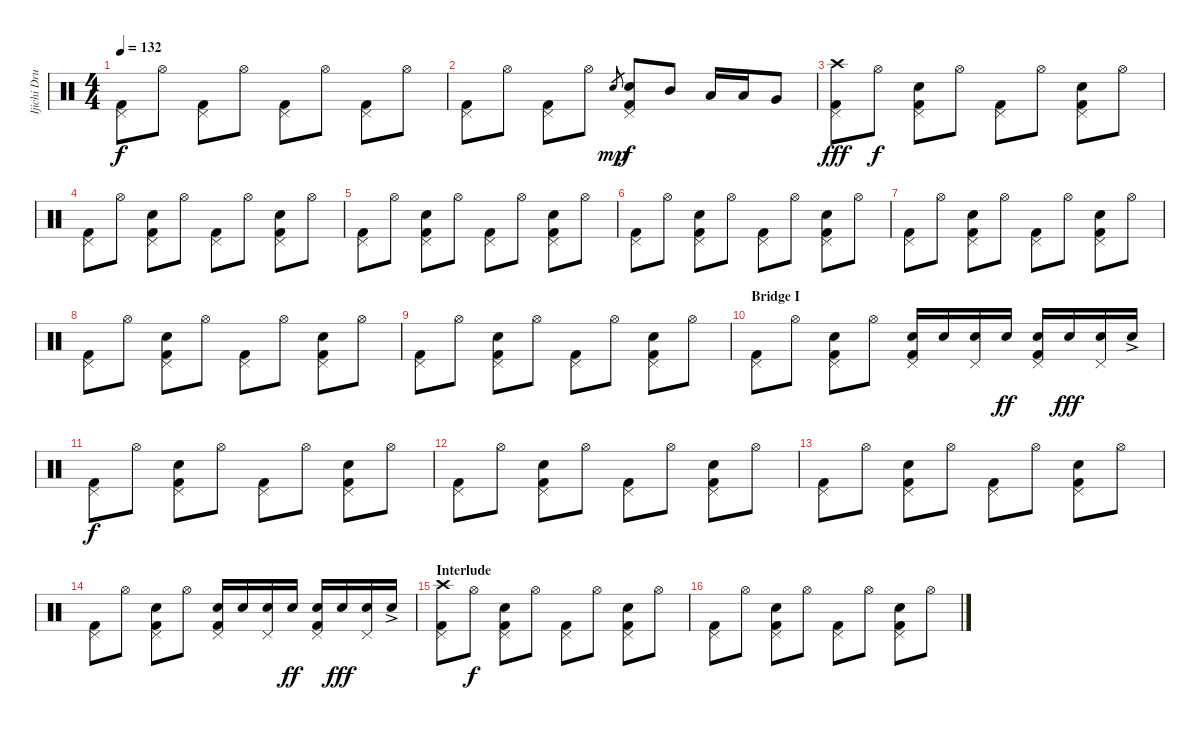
\track ("Ijichi Drums" "Ijichi Dru") {instrument percussion}
\staff {score}
\articulation defaults
\ts (4 4)
\tempo 132
\clef neutral
\ks c
("Pedal Hi-Hat (hit)" "Kick (hit) 2").8{dy f} "Hi-Hat (open)".8 ("Pedal Hi-Hat (hit)" "Kick (hit) 2").8 "Hi-Hat (open)".8 ("Pedal Hi-Hat (hit)" "Kick (hit) 2").8 "Hi-Hat (open)".8 ("Pedal Hi-Hat (hit)" "Kick (hit) 2").8 "Hi-Hat (open)".8 |
("Pedal Hi-Hat (hit)" "Kick (hit) 2").8 "Hi-Hat (open)".8 ("Pedal Hi-Hat (hit)" "Kick (hit) 2").8 "Hi-Hat (open)".8 "Electric Snare (hit)".8{gr dy mp} ("Pedal Hi-Hat (hit)" "Electric Snare (hit)" "Kick (hit) 2").8{dy f} "Mid Tom (hit)".8 "Low Tom (hit)".16 "Low Tom (hit)".16 "Very Low Tom (hit)".8 |
("Pedal Hi-Hat (hit)" "Crash high (hit)" "Kick (hit) 2").8{dy fff} "Hi-Hat (open)".8{dy f} ("Pedal Hi-Hat (hit)" "Snare (hit) 2" "Kick (hit) 2").8 "Hi-Hat (open)".8 ("Pedal Hi-Hat (hit)" "Kick (hit) 2").8 "Hi-Hat (open)".8 ("Pedal Hi-Hat (hit)" "Snare (hit) 2" "Kick (hit) 2").8 "Hi-Hat (open)".8 |
("Pedal Hi-Hat (hit)" "Kick (hit) 2").8 "Hi-Hat (open)".8 ("Pedal Hi-Hat (hit)" "Snare (hit) 2" "Kick (hit) 2").8 "Hi-Hat (open)".8 ("Pedal Hi-Hat (hit)" "Kick (hit) 2").8 "Hi-Hat (open)".8 ("Pedal Hi-Hat (hit)" "Snare (hit) 2" "Kick (hit) 2").8 "Hi-Hat (open)".8 |
("Pedal Hi-Hat (hit)" "Kick (hit) 2").8 "Hi-Hat (open)".8 ("Pedal Hi-Hat (hit)" "Snare (hit) 2" "Kick (hit) 2").8 "Hi-Hat (open)".8 ("Pedal Hi-Hat (hit)" "Kick (hit) 2").8 "Hi-Hat (open)".8 ("Pedal Hi-Hat (hit)" "Snare (hit) 2" "Kick (hit) 2").8 "Hi-Hat (open)".8 |
("Pedal Hi-Hat (hit)" "Kick (hit) 2").8 "Hi-Hat (open)".8 ("Pedal Hi-Hat (hit)" "Snare (hit) 2" "Kick (hit) 2").8 "Hi-Hat (open)".8 ("Pedal Hi-Hat (hit)" "Kick (hit) 2").8 "Hi-Hat (open)".8 ("Pedal Hi-Hat (hit)" "Snare (hit) 2" "Kick (hit) 2").8 "Hi-Hat (open)".8 |
("Pedal Hi-Hat (hit)" "Kick (hit) 2").8 "Hi-Hat (open)".8 ("Pedal Hi-Hat (hit)" "Snare (hit) 2" "Kick (hit) 2").8 "Hi-Hat (open)".8 ("Pedal Hi-Hat (hit)" "Kick (hit) 2").8 "Hi-Hat (open)".8 ("Pedal Hi-Hat (hit)" "Snare (hit) 2" "Kick (hit) 2").8 "Hi-Hat (open)".8 |
("Pedal Hi-Hat (hit)" "Kick (hit) 2").8 "Hi-Hat (open)".8 ("Pedal Hi-Hat (hit)" "Snare (hit) 2" "Kick (hit) 2").8 "Hi-Hat (open)".8 ("Pedal Hi-Hat (hit)" "Kick (hit) 2").8 "Hi-Hat (open)".8 ("Pedal Hi-Hat (hit)" "Snare (hit) 2" "Kick (hit) 2").8 "Hi-Hat (open)".8 |
("Pedal Hi-Hat (hit)" "Kick (hit) 2").8 "Hi-Hat (open)".8 ("Pedal Hi-Hat (hit)" "Snare (hit) 2" "Kick (hit) 2").8 "Hi-Hat (open)".8 ("Pedal Hi-Hat (hit)" "Kick (hit) 2").8 "Hi-Hat (open)".8 ("Pedal Hi-Hat (hit)" "Snare (hit) 2" "Kick (hit) 2").8 "Hi-Hat (open)".8 |
\section ("" "Bridge I")
("Pedal Hi-Hat (hit)" "Kick (hit) 2").8 "Hi-Hat (open)".8 ("Pedal Hi-Hat (hit)" "Snare (hit) 2" "Kick (hit) 2").8 "Hi-Hat (open)".8 ("Pedal Hi-Hat (hit)" "Snare (hit) 2" "Kick (hit) 2").16 "Snare (hit) 2".16 ("Pedal Hi-Hat (hit)" "Snare (hit) 2").16 "Snare (hit) 2".16{dy ff} ("Pedal Hi-Hat (hit)" "Snare (hit) 2" "Kick (hit) 2").16 "Snare (hit) 2".16{dy fff} ("Pedal Hi-Hat (hit)" "Snare (hit) 2").16 "Snare (hit) 2"{ac}.16 |
("Pedal Hi-Hat (hit)" "Kick (hit) 2").8{dy f} "Hi-Hat (open)".8 ("Pedal Hi-Hat (hit)" "Snare (hit) 2" "Kick (hit) 2").8 "Hi-Hat (open)".8 ("Pedal Hi-Hat (hit)" "Kick (hit) 2").8 "Hi-Hat (open)".8 ("Pedal Hi-Hat (hit)" "Snare (hit) 2" "Kick (hit) 2").8 "Hi-Hat (open)".8 |
("Pedal Hi-Hat (hit)" "Kick (hit) 2").8 "Hi-Hat (open)".8 ("Pedal Hi-Hat (hit)" "Snare (hit) 2" "Kick (hit) 2").8 "Hi-Hat (open)".8 ("Pedal Hi-Hat (hit)" "Kick (hit) 2").8 "Hi-Hat (open)".8 ("Pedal Hi-Hat (hit)" "Snare (hit) 2" "Kick (hit) 2").8 "Hi-Hat (open)".8 |
("Pedal Hi-Hat (hit)" "Kick (hit) 2").8 "Hi-Hat (open)".8 ("Pedal Hi-Hat (hit)" "Snare (hit) 2" "Kick (hit) 2").8 "Hi-Hat (open)".8 ("Pedal Hi-Hat (hit)" "Kick (hit) 2").8 "Hi-Hat (open)".8 ("Pedal Hi-Hat (hit)" "Snare (hit) 2" "Kick (hit) 2").8 "Hi-Hat (open)".8 |
("Pedal Hi-Hat (hit)" "Kick (hit) 2").8 "Hi-Hat (open)".8 ("Pedal Hi-Hat (hit)" "Snare (hit) 2" "Kick (hit) 2").8 "Hi-Hat (open)".8 ("Pedal Hi-Hat (hit)" "Snare (hit) 2" "Kick (hit) 2").16 "Snare (hit) 2".16 ("Pedal Hi-Hat (hit)" "Snare (hit) 2").16 "Snare (hit) 2".16{dy ff} ("Pedal Hi-Hat (hit)" "Snare (hit) 2" "Kick (hit) 2").16 "Snare (hit) 2".16{dy fff} ("Pedal Hi-Hat (hit)" "Snare (hit) 2").16 "Snare (hit) 2"{ac}.16 |
\section ("" "Interlude")
("Pedal Hi-Hat (hit)" "Crash high (hit)" "Kick (hit) 2").8 "Hi-Hat (open)".8{dy f} ("Pedal Hi-Hat (hit)" "Snare (hit) 2" "Kick (hit) 2").8 "Hi-Hat (open)".8 ("Pedal Hi-Hat (hit)" "Kick (hit) 2").8 "Hi-Hat (open)".8 ("Pedal Hi-Hat (hit)" "Snare (hit) 2" "Kick (hit) 2").8 "Hi-Hat (open)".8 |
("Pedal Hi-Hat (hit)" "Kick (hit) 2").8 "Hi-Hat (open)".8 ("Pedal Hi-Hat (hit)" "Snare (hit) 2" "Kick (hit) 2").8 "Hi-Hat (open)".8 ("Pedal Hi-Hat (hit)" "Kick (hit) 2").8 "Hi-Hat (open)".8 ("Pedal Hi-Hat (hit)" "Snare (hit) 2" "Kick (hit) 2").8 "Hi-Hat (open)".8
